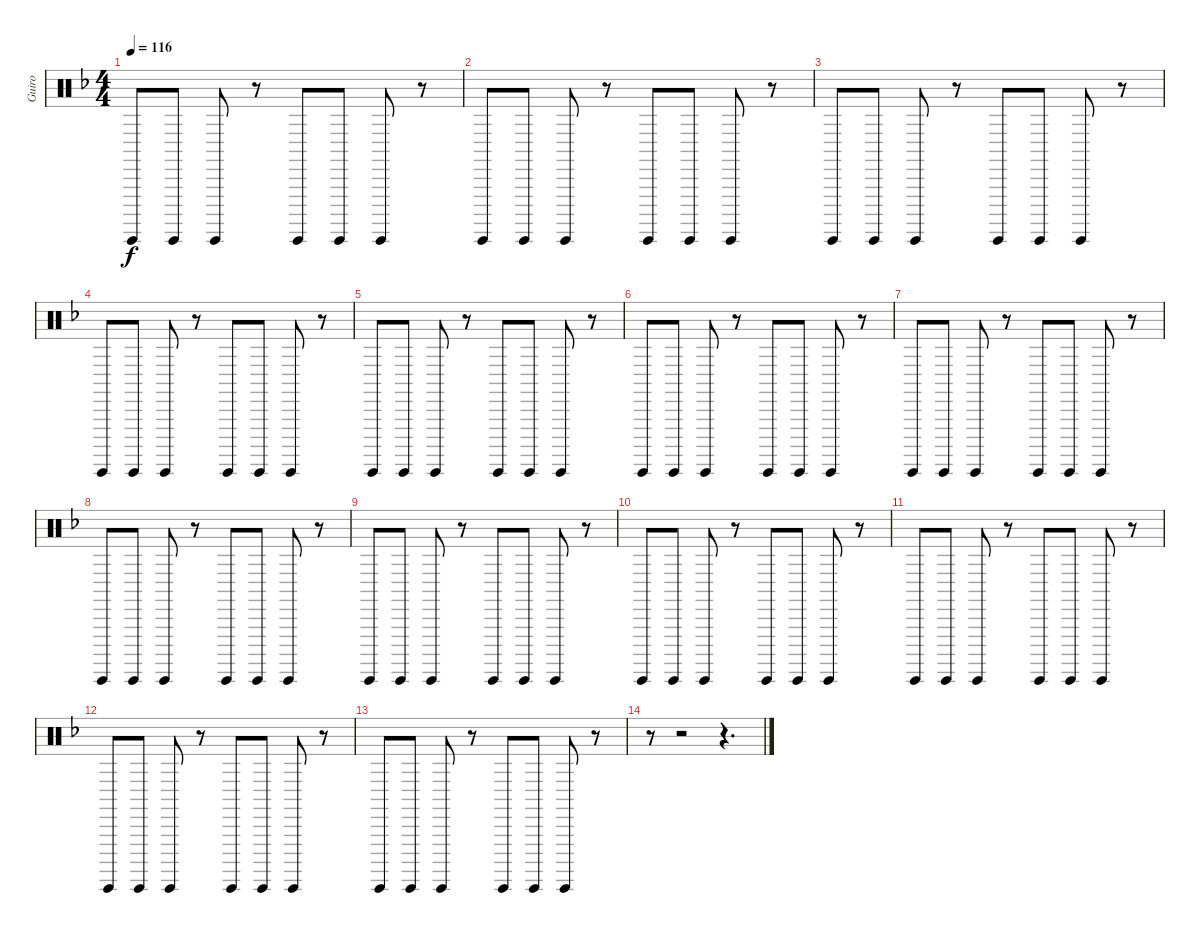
\track ("Guiro" "Guiro") {instrument percussion}
\staff {score}
\articulation defaults
\ts (4 4)
\tempo 116
\clef neutral
\ks dminor "Guiro (hit)".8{dy f} "Guiro (hit)".8 "Guiro (hit)".8
r.8 "Guiro (hit)".8 "Guiro (hit)".8 "Guiro (hit)".8 r.8 |
"Guiro (hit)".8 "Guiro (hit)".8 "Guiro (hit)".8 r.8 "Guiro (hit)".8 "Guiro (hit)".8 "Guiro (hit)".8 r.8 |
"Guiro (hit)".8 "Guiro (hit)".8 "Guiro (hit)".8 r.8 "Guiro (hit)".8 "Guiro (hit)".8 "Guiro (hit)".8 r.8 |
"Guiro (hit)".8 "Guiro (hit)".8 "Guiro (hit)".8 r.8 "Guiro (hit)".8 "Guiro (hit)".8 "Guiro (hit)".8 r.8 |
"Guiro (hit)".8 "Guiro (hit)".8 "Guiro (hit)".8 r.8 "Guiro (hit)".8 "Guiro (hit)".8 "Guiro (hit)".8 r.8 |
"Guiro (hit)".8 "Guiro (hit)".8 "Guiro (hit)".8 r.8 "Guiro (hit)".8 "Guiro (hit)".8 "Guiro (hit)".8 r.8 |
"Guiro (hit)".8 "Guiro (hit)".8 "Guiro (hit)".8 r.8 "Guiro (hit)".8 "Guiro (hit)".8 "Guiro (hit)".8 r.8 |
"Guiro (hit)".8 "Guiro (hit)".8 "Guiro (hit)".8 r.8 "Guiro (hit)".8 "Guiro (hit)".8 "Guiro (hit)".8 r.8 |
"Guiro (hit)".8 "Guiro (hit)".8 "Guiro (hit)".8 r.8 "Guiro (hit)".8 "Guiro (hit)".8 "Guiro (hit)".8 r.8 |
"Guiro (hit)".8 "Guiro (hit)".8 "Guiro (hit)".8 r.8 "Guiro (hit)".8 "Guiro (hit)".8 "Guiro (hit)".8 r.8 |
"Guiro (hit)".8 "Guiro (hit)".8 "Guiro (hit)".8 r.8 "Guiro (hit)".8 "Guiro (hit)".8 "Guiro (hit)".8 r.8 |
"Guiro (hit)".8 "Guiro (hit)".8 "Guiro (hit)".8 r.8 "Guiro (hit)".8 "Guiro (hit)".8 "Guiro (hit)".8 r.8 |
"Guiro (hit)".8 "Guiro (hit)".8 "Guiro (hit)".8 r.8 "Guiro (hit)".8 "Guiro (hit)".8 "Guiro (hit)".8 r.8 |
r.8 r.2 r.4{d}
